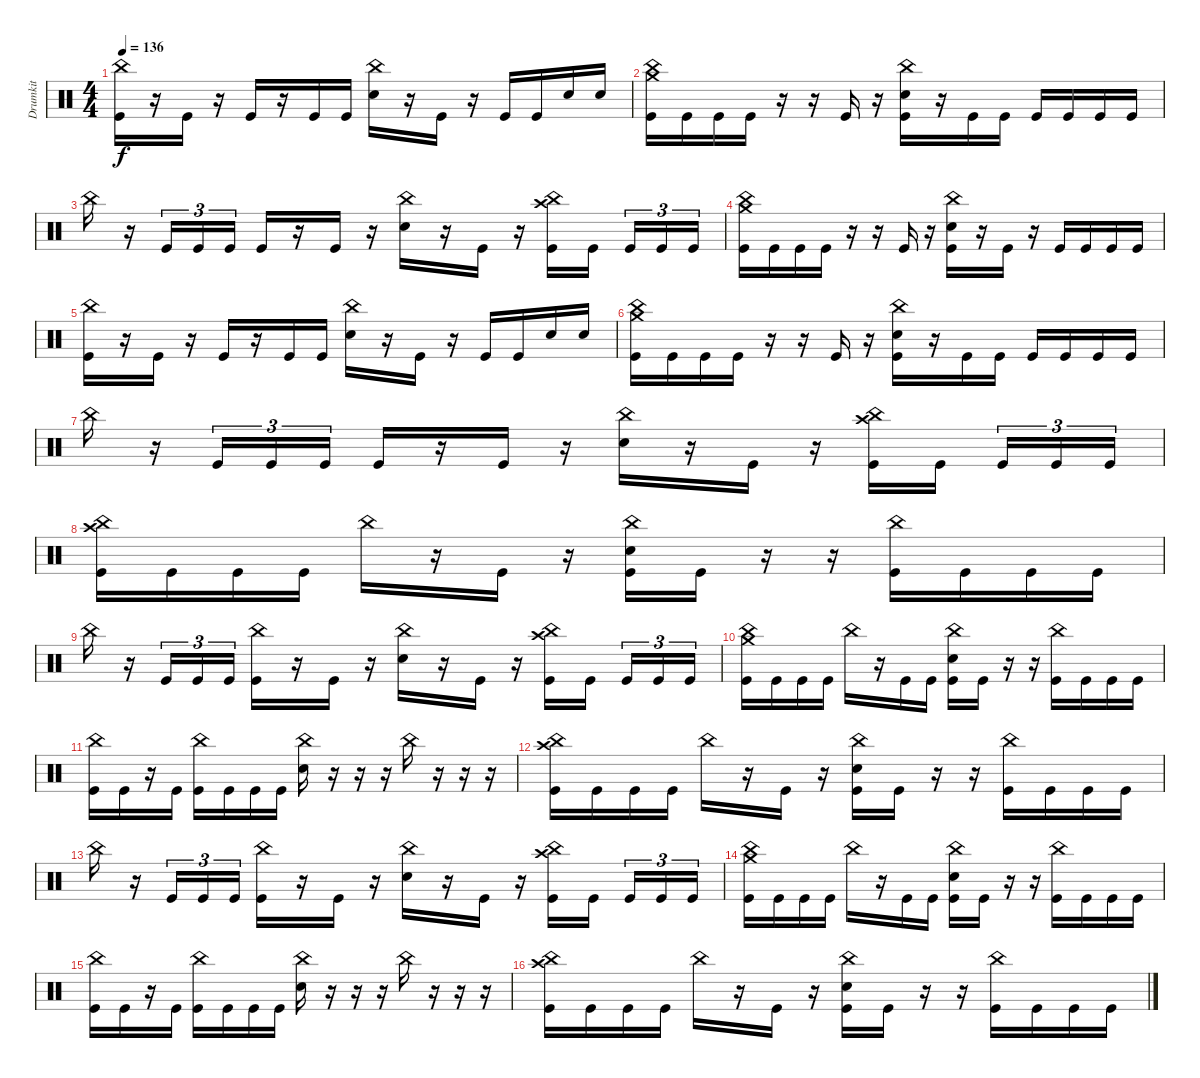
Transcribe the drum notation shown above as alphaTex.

\track ("Drumkit" "Drumkit") {instrument percussion}
\staff {score}
\articulation defaults
\ts (4 4)
\tempo 136
\clef neutral
\ks c
("China (hit)" "Kick (hit)").16{dy f} r.16 "Kick (hit)".16 r.16 "Kick (hit)".16 r.16 "Kick (hit)".16 "Kick (hit)".16 ("China (hit)" "Snare (hit) 2").16 r.16 "Kick (hit)".16 r.16 "Kick (hit)".16 "Kick (hit)".16 "Snare (hit) 2".16 "Snare (hit) 2".16 |
("China (hit)" "Crash medium (hit)" "Kick (hit)").16 "Kick (hit)".16 "Kick (hit)".16 "Kick (hit)".16 r.16 r.16 "Kick (hit)".16 r.16 ("China (hit)" "Snare (hit) 2" "Kick (hit)").16 r.16 "Kick (hit)".16 "Kick (hit)".16 "Kick (hit)".16 "Kick (hit)".16 "Kick (hit)".16 "Kick (hit)".16 |
"China (hit)".16 r.16 "Kick (hit)".16{tu (3 2)} "Kick (hit)".16{tu (3 2)} "Kick (hit)".16{tu (3 2)} "Kick (hit)".16 r.16 "Kick (hit)".16 r.16 ("China (hit)" "Snare (hit) 2").16 r.16 "Kick (hit)".16 r.16 ("China (hit)" "Crash high (hit)" "Kick (hit)").16 "Kick (hit)".16 "Kick (hit)".16{tu (3 2)} "Kick (hit)".16{tu (3 2)} "Kick (hit)".16{tu (3 2)} |
("China (hit)" "Crash medium (hit)" "Kick (hit)").16 "Kick (hit)".16 "Kick (hit)".16 "Kick (hit)".16 r.16 r.16 "Kick (hit)".16 r.16 ("China (hit)" "Snare (hit) 2" "Kick (hit)").16 r.16 "Kick (hit)".16 r.16 "Kick (hit)".16 "Kick (hit)".16 "Kick (hit)".16 "Kick (hit)".16 |
("China (hit)" "Kick (hit)").16 r.16 "Kick (hit)".16 r.16 "Kick (hit)".16 r.16 "Kick (hit)".16 "Kick (hit)".16 ("China (hit)" "Snare (hit) 2").16 r.16 "Kick (hit)".16 r.16 "Kick (hit)".16 "Kick (hit)".16 "Snare (hit) 2".16 "Snare (hit) 2".16 |
("China (hit)" "Crash medium (hit)" "Kick (hit)").16 "Kick (hit)".16 "Kick (hit)".16 "Kick (hit)".16 r.16 r.16 "Kick (hit)".16 r.16 ("China (hit)" "Snare (hit) 2" "Kick (hit)").16 r.16 "Kick (hit)".16 "Kick (hit)".16 "Kick (hit)".16 "Kick (hit)".16 "Kick (hit)".16 "Kick (hit)".16 |
"China (hit)".16 r.16 "Kick (hit)".16{tu (3 2)} "Kick (hit)".16{tu (3 2)} "Kick (hit)".16{tu (3 2)} "Kick (hit)".16 r.16 "Kick (hit)".16 r.16 ("China (hit)" "Snare (hit) 2").16 r.16 "Kick (hit)".16 r.16 ("China (hit)" "Crash high (hit)" "Kick (hit)").16 "Kick (hit)".16 "Kick (hit)".16{tu (3 2)} "Kick (hit)".16{tu (3 2)} "Kick (hit)".16{tu (3 2)} |
("China (hit)" "Crash high (hit)" "Kick (hit)").16 "Kick (hit)".16 "Kick (hit)".16 "Kick (hit)".16 "China (hit)".16 r.16 "Kick (hit)".16 r.16 ("China (hit)" "Snare (hit) 2" "Kick (hit)").16 "Kick (hit)".16 r.16 r.16 ("China (hit)" "Kick (hit)").16 "Kick (hit)".16 "Kick (hit)".16 "Kick (hit)".16 |
"China (hit)".16 r.16 "Kick (hit)".16{tu (3 2)} "Kick (hit)".16{tu (3 2)} "Kick (hit)".16{tu (3 2)} ("China (hit)" "Kick (hit)").16 r.16 "Kick (hit)".16 r.16 ("China (hit)" "Snare (hit) 2").16 r.16 "Kick (hit)".16 r.16 ("China (hit)" "Crash high (hit)" "Kick (hit)").16 "Kick (hit)".16 "Kick (hit)".16{tu (3 2)} "Kick (hit)".16{tu (3 2)} "Kick (hit)".16{tu (3 2)} |
("China (hit)" "Crash medium (hit)" "Kick (hit)").16 "Kick (hit)".16 "Kick (hit)".16 "Kick (hit)".16 "China (hit)".16 r.16 "Kick (hit)".16 "Kick (hit)".16 ("China (hit)" "Snare (hit) 2" "Kick (hit)").16 "Kick (hit)".16 r.16 r.16 ("China (hit)" "Kick (hit)").16 "Kick (hit)".16 "Kick (hit)".16 "Kick (hit)".16 |
("China (hit)" "Kick (hit)").16 "Kick (hit)".16 r.16 "Kick (hit)".16 ("China (hit)" "Kick (hit)").16 "Kick (hit)".16 "Kick (hit)".16 "Kick (hit)".16 ("China (hit)" "Snare (hit) 2").16 r.16 r.16 r.16 "China (hit)".16 r.16 r.16 r.16 |
("China (hit)" "Crash high (hit)" "Kick (hit)").16 "Kick (hit)".16 "Kick (hit)".16 "Kick (hit)".16 "China (hit)".16 r.16 "Kick (hit)".16 r.16 ("China (hit)" "Snare (hit) 2" "Kick (hit)").16 "Kick (hit)".16 r.16 r.16 ("China (hit)" "Kick (hit)").16 "Kick (hit)".16 "Kick (hit)".16 "Kick (hit)".16 |
"China (hit)".16 r.16 "Kick (hit)".16{tu (3 2)} "Kick (hit)".16{tu (3 2)} "Kick (hit)".16{tu (3 2)} ("China (hit)" "Kick (hit)").16 r.16 "Kick (hit)".16 r.16 ("China (hit)" "Snare (hit) 2").16 r.16 "Kick (hit)".16 r.16 ("China (hit)" "Crash high (hit)" "Kick (hit)").16 "Kick (hit)".16 "Kick (hit)".16{tu (3 2)} "Kick (hit)".16{tu (3 2)} "Kick (hit)".16{tu (3 2)} |
("China (hit)" "Crash medium (hit)" "Kick (hit)").16 "Kick (hit)".16 "Kick (hit)".16 "Kick (hit)".16 "China (hit)".16 r.16 "Kick (hit)".16 "Kick (hit)".16 ("China (hit)" "Snare (hit) 2" "Kick (hit)").16 "Kick (hit)".16 r.16 r.16 ("China (hit)" "Kick (hit)").16 "Kick (hit)".16 "Kick (hit)".16 "Kick (hit)".16 |
("China (hit)" "Kick (hit)").16 "Kick (hit)".16 r.16 "Kick (hit)".16 ("China (hit)" "Kick (hit)").16 "Kick (hit)".16 "Kick (hit)".16 "Kick (hit)".16 ("China (hit)" "Snare (hit) 2").16 r.16 r.16 r.16 "China (hit)".16 r.16 r.16 r.16 |
("China (hit)" "Crash high (hit)" "Kick (hit)").16 "Kick (hit)".16 "Kick (hit)".16 "Kick (hit)".16 "China (hit)".16 r.16 "Kick (hit)".16 r.16 ("China (hit)" "Snare (hit) 2" "Kick (hit)").16 "Kick (hit)".16 r.16 r.16 ("China (hit)" "Kick (hit)").16 "Kick (hit)".16 "Kick (hit)".16 "Kick (hit)".16
